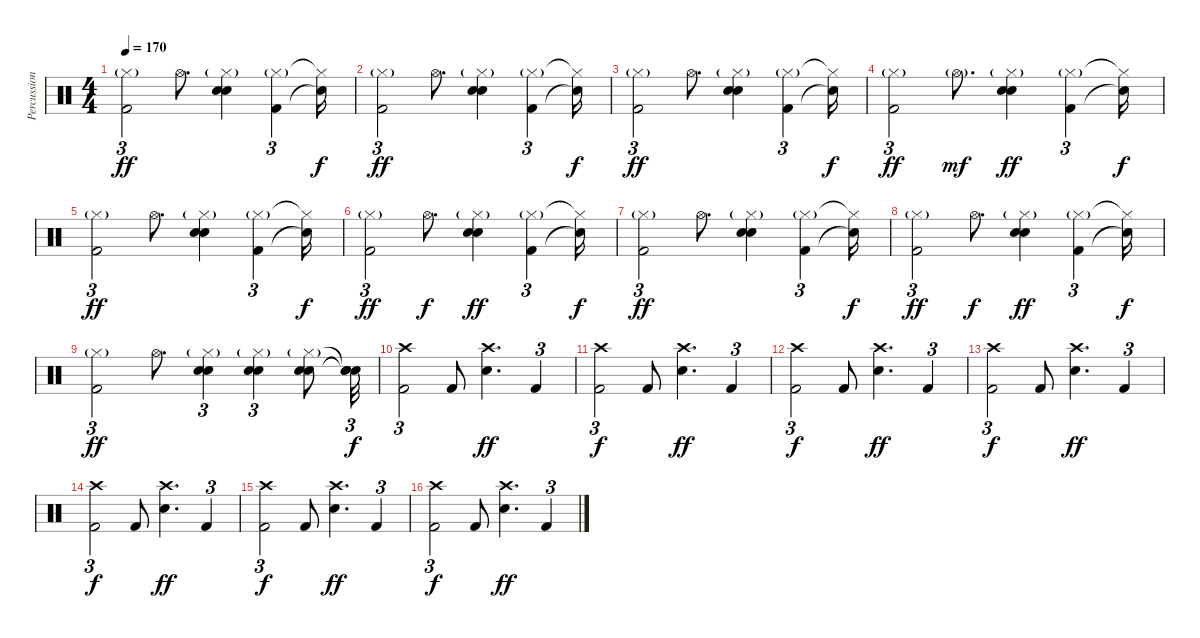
\track ("Percussion" "Percussion") {instrument percussion bank 127}
\staff {score}
\articulation defaults
\ts (4 4)
\tempo 170
\clef neutral
\ks c
("Hi-Hat (closed)"{g} "Kick (hit) 2").2{tu (3 2) dy ff} "Hi-Hat (open)".8{d} ("Hi-Hat (closed)"{g} "Snare (hit) 2" "Electric Snare (hit)").4 ("Hi-Hat (closed)"{g} "Kick (hit) 2").4{tu (3 2)} ("Hi-Hat (closed)"{t} "Snare (hit)"{t}).16{dy f} |
("Hi-Hat (closed)"{g} "Kick (hit) 2").2{tu (3 2) dy ff} "Hi-Hat (open)".8{d} ("Hi-Hat (closed)"{g} "Snare (hit) 2" "Electric Snare (hit)").4 ("Hi-Hat (closed)"{g} "Kick (hit) 2").4{tu (3 2)} ("Hi-Hat (closed)"{t} "Snare (hit)"{t}).16{dy f} |
("Hi-Hat (closed)"{g} "Kick (hit) 2").2{tu (3 2) dy ff} "Hi-Hat (open)".8{d} ("Hi-Hat (closed)"{g} "Snare (hit) 2" "Electric Snare (hit)").4 ("Hi-Hat (closed)"{g} "Kick (hit) 2").4{tu (3 2)} ("Hi-Hat (closed)"{t} "Snare (hit)"{t}).16{dy f} |
("Hi-Hat (closed)"{g} "Kick (hit) 2").2{tu (3 2) dy ff} "Hi-Hat (open)"{g}.8{d dy mf} ("Hi-Hat (closed)"{g} "Snare (hit) 2" "Electric Snare (hit)").4{dy ff} ("Hi-Hat (closed)"{g} "Kick (hit) 2").4{tu (3 2)} ("Hi-Hat (closed)"{t} "Snare (hit)"{t}).16{dy f} |
("Hi-Hat (closed)"{g} "Kick (hit) 2").2{tu (3 2) dy ff} "Hi-Hat (open)".8{d} ("Hi-Hat (closed)"{g} "Snare (hit) 2" "Electric Snare (hit)").4 ("Hi-Hat (closed)"{g} "Kick (hit) 2").4{tu (3 2)} ("Hi-Hat (closed)"{t} "Snare (hit)"{t}).16{dy f} |
("Hi-Hat (closed)"{g} "Kick (hit) 2").2{tu (3 2) dy ff} "Hi-Hat (open)".8{d dy f} ("Hi-Hat (closed)"{g} "Snare (hit) 2" "Electric Snare (hit)").4{dy ff} ("Hi-Hat (closed)"{g} "Kick (hit) 2").4{tu (3 2)} ("Hi-Hat (closed)"{t} "Snare (hit)"{t}).16{dy f} |
("Hi-Hat (closed)"{g} "Kick (hit) 2").2{tu (3 2) dy ff} "Hi-Hat (open)".8{d} ("Hi-Hat (closed)"{g} "Snare (hit) 2" "Electric Snare (hit)").4 ("Hi-Hat (closed)"{g} "Kick (hit) 2").4{tu (3 2)} ("Hi-Hat (closed)"{t} "Snare (hit)"{t}).16{dy f} |
("Hi-Hat (closed)"{g} "Kick (hit) 2").2{tu (3 2) dy ff} "Hi-Hat (open)".8{d dy f} ("Hi-Hat (closed)"{g} "Snare (hit) 2" "Electric Snare (hit)").4{dy ff} ("Hi-Hat (closed)"{g} "Kick (hit) 2").4{tu (3 2)} ("Hi-Hat (closed)"{t} "Snare (hit)"{t}).16{dy f} |
("Hi-Hat (closed)"{g} "Kick (hit) 2").2{tu (3 2) dy ff} "Hi-Hat (open)".8{d} ("Hi-Hat (closed)"{g} "Snare (hit) 2" "Electric Snare (hit)").4{tu (3 2)} ("Hi-Hat (closed)"{g} "Snare (hit) 2" "Electric Snare (hit)").4{tu (3 2)} ("Hi-Hat (closed)"{g} "Snare (hit) 2" "Electric Snare (hit)").8 ("Snare (hit)"{t} "Snare (hit)"{t} "Snare (hit)"{t}).32{tu (3 2) dy f} |
("Crash high (hit)" "Kick (hit) 2").2{tu (3 2)} "Kick (hit) 2".8 ("Crash high (hit)" "Snare (hit) 2").4{d dy ff} "Kick (hit) 2".4{tu (3 2)} |
("Crash high (hit)" "Kick (hit) 2").2{tu (3 2) dy f} "Kick (hit) 2".8 ("Crash high (hit)" "Snare (hit) 2").4{d dy ff} "Kick (hit) 2".4{tu (3 2)} |
("Crash high (hit)" "Kick (hit) 2").2{tu (3 2) dy f} "Kick (hit) 2".8 ("Crash high (hit)" "Snare (hit) 2").4{d dy ff} "Kick (hit) 2".4{tu (3 2)} |
("Crash high (hit)" "Kick (hit) 2").2{tu (3 2) dy f} "Kick (hit) 2".8 ("Crash high (hit)" "Snare (hit) 2").4{d dy ff} "Kick (hit) 2".4{tu (3 2)} |
("Crash high (hit)" "Kick (hit) 2").2{tu (3 2) dy f} "Kick (hit) 2".8 ("Crash high (hit)" "Snare (hit) 2").4{d dy ff} "Kick (hit) 2".4{tu (3 2)} |
("Crash high (hit)" "Kick (hit) 2").2{tu (3 2) dy f} "Kick (hit) 2".8 ("Crash high (hit)" "Snare (hit) 2").4{d dy ff} "Kick (hit) 2".4{tu (3 2)} |
("Crash high (hit)" "Kick (hit) 2").2{tu (3 2) dy f} "Kick (hit) 2".8 ("Crash high (hit)" "Snare (hit) 2").4{d dy ff} "Kick (hit) 2".4{tu (3 2)}
